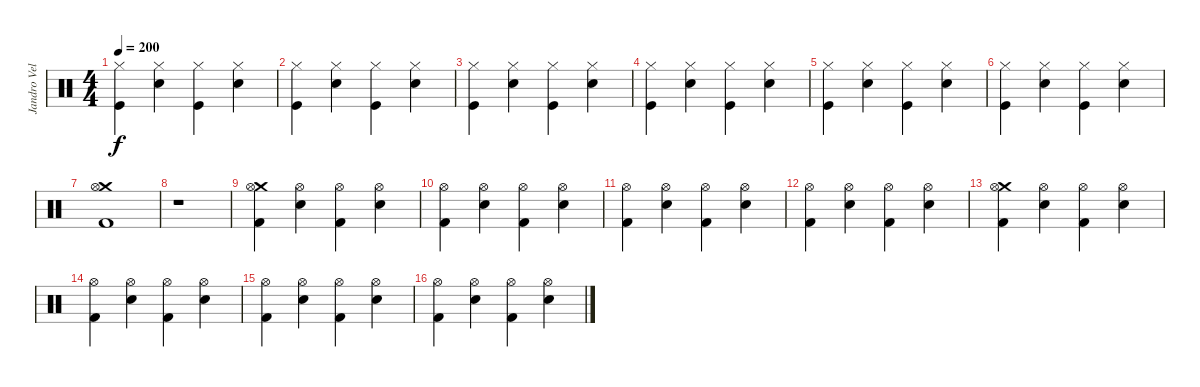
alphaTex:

\track ("Jandro Velázquez" "Jandro Vel") {instrument percussion}
\staff {score}
\articulation defaults
\ts (4 4)
\tempo 200
\clef neutral
\ks c
("Hi-Hat (closed)" "Kick (hit)").4{dy f} ("Hi-Hat (closed)" "Snare (hit) 2").4 ("Hi-Hat (closed)" "Kick (hit)").4 ("Hi-Hat (closed)" "Snare (hit) 2").4 |
("Hi-Hat (closed)" "Kick (hit)").4 ("Hi-Hat (closed)" "Snare (hit) 2").4 ("Hi-Hat (closed)" "Kick (hit)").4 ("Hi-Hat (closed)" "Snare (hit) 2").4 |
("Hi-Hat (closed)" "Kick (hit)").4 ("Hi-Hat (closed)" "Snare (hit) 2").4 ("Hi-Hat (closed)" "Kick (hit)").4 ("Hi-Hat (closed)" "Snare (hit) 2").4 |
("Hi-Hat (closed)" "Kick (hit)").4 ("Hi-Hat (closed)" "Snare (hit) 2").4 ("Hi-Hat (closed)" "Kick (hit)").4 ("Hi-Hat (closed)" "Snare (hit) 2").4 |
("Hi-Hat (closed)" "Kick (hit)").4 ("Hi-Hat (closed)" "Snare (hit) 2").4 ("Hi-Hat (closed)" "Kick (hit)").4 ("Hi-Hat (closed)" "Snare (hit) 2").4 |
("Hi-Hat (closed)" "Kick (hit)").4 ("Hi-Hat (closed)" "Snare (hit) 2").4 ("Hi-Hat (closed)" "Kick (hit)").4 ("Hi-Hat (closed)" "Snare (hit) 2").4 |
("Crash medium (hit)" "Hi-Hat (open)" "Kick (hit) 2").1 |
r.1 |
("Crash medium (hit)" "Hi-Hat (open)" "Kick (hit) 2").4 ("Hi-Hat (open)" "Snare (hit) 2").4 ("Hi-Hat (open)" "Kick (hit) 2").4 ("Hi-Hat (open)" "Snare (hit) 2").4 |
("Hi-Hat (open)" "Kick (hit) 2").4 ("Hi-Hat (open)" "Snare (hit) 2").4 ("Hi-Hat (open)" "Kick (hit) 2").4 ("Hi-Hat (open)" "Snare (hit) 2").4 |
("Hi-Hat (open)" "Kick (hit) 2").4 ("Hi-Hat (open)" "Snare (hit) 2").4 ("Hi-Hat (open)" "Kick (hit) 2").4 ("Hi-Hat (open)" "Snare (hit) 2").4 |
("Hi-Hat (open)" "Kick (hit) 2").4 ("Hi-Hat (open)" "Snare (hit) 2").4 ("Hi-Hat (open)" "Kick (hit) 2").4 ("Hi-Hat (open)" "Snare (hit) 2").4 |
("Crash medium (hit)" "Hi-Hat (open)" "Kick (hit) 2").4 ("Hi-Hat (open)" "Snare (hit) 2").4 ("Hi-Hat (open)" "Kick (hit) 2").4 ("Hi-Hat (open)" "Snare (hit) 2").4 |
("Hi-Hat (open)" "Kick (hit) 2").4 ("Hi-Hat (open)" "Snare (hit) 2").4 ("Hi-Hat (open)" "Kick (hit) 2").4 ("Hi-Hat (open)" "Snare (hit) 2").4 |
("Hi-Hat (open)" "Kick (hit) 2").4 ("Hi-Hat (open)" "Snare (hit) 2").4 ("Hi-Hat (open)" "Kick (hit) 2").4 ("Hi-Hat (open)" "Snare (hit) 2").4 |
("Hi-Hat (open)" "Kick (hit) 2").4 ("Hi-Hat (open)" "Snare (hit) 2").4 ("Hi-Hat (open)" "Kick (hit) 2").4 ("Hi-Hat (open)" "Snare (hit) 2").4
